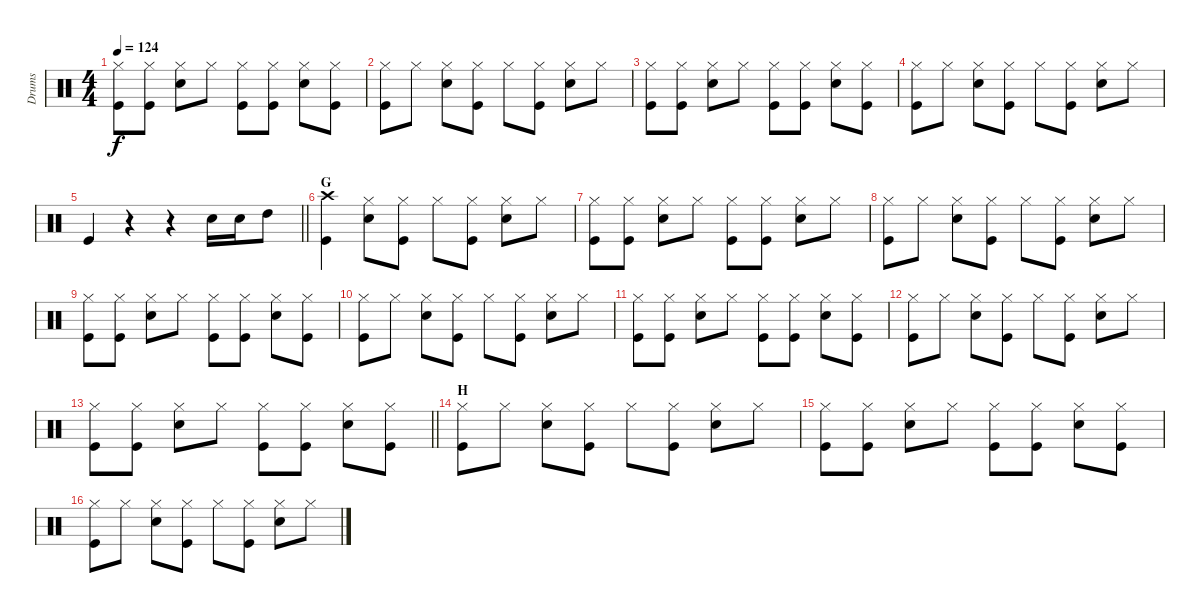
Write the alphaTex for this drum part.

\track ("Drums" "Drums") {instrument percussion}
\staff {score}
\articulation defaults
\ts (4 4)
\tempo 124
\clef neutral
\ks c
("Hi-Hat (closed)" "Kick (hit)").8{dy f} ("Hi-Hat (closed)" "Kick (hit)").8 ("Hi-Hat (closed)" "Electric Snare (hit)").8 "Hi-Hat (closed)".8 ("Hi-Hat (closed)" "Kick (hit)").8 ("Hi-Hat (closed)" "Kick (hit)").8 ("Hi-Hat (closed)" "Electric Snare (hit)").8 ("Hi-Hat (closed)" "Kick (hit)").8 |
("Hi-Hat (closed)" "Kick (hit)").8 "Hi-Hat (closed)".8 ("Hi-Hat (closed)" "Electric Snare (hit)").8 ("Hi-Hat (closed)" "Kick (hit)").8 "Hi-Hat (closed)".8 ("Hi-Hat (closed)" "Kick (hit)").8 ("Hi-Hat (closed)" "Electric Snare (hit)").8 "Hi-Hat (closed)".8 |
("Hi-Hat (closed)" "Kick (hit)").8 ("Hi-Hat (closed)" "Kick (hit)").8 ("Hi-Hat (closed)" "Electric Snare (hit)").8 "Hi-Hat (closed)".8 ("Hi-Hat (closed)" "Kick (hit)").8 ("Hi-Hat (closed)" "Kick (hit)").8 ("Hi-Hat (closed)" "Electric Snare (hit)").8 ("Hi-Hat (closed)" "Kick (hit)").8 |
("Hi-Hat (closed)" "Kick (hit)").8 "Hi-Hat (closed)".8 ("Hi-Hat (closed)" "Electric Snare (hit)").8 ("Hi-Hat (closed)" "Kick (hit)").8 "Hi-Hat (closed)".8 ("Hi-Hat (closed)" "Kick (hit)").8 ("Hi-Hat (closed)" "Electric Snare (hit)").8 "Hi-Hat (closed)".8 |
\barLineRight lightlight "Kick (hit)".4
r.4 r.4 "Electric Snare (hit)".16 "Electric Snare (hit)".16 "High Tom (hit)".8 |
\section ("" "G")
("Crash high (hit)" "Kick (hit)").4 ("Hi-Hat (closed)" "Electric Snare (hit)").8 ("Hi-Hat (closed)" "Kick (hit)").8 "Hi-Hat (closed)".8 ("Hi-Hat (closed)" "Kick (hit)").8 ("Hi-Hat (closed)" "Electric Snare (hit)").8 "Hi-Hat (closed)".8 |
("Hi-Hat (closed)" "Kick (hit)").8 ("Hi-Hat (closed)" "Kick (hit)").8 ("Hi-Hat (closed)" "Electric Snare (hit)").8 "Hi-Hat (closed)".8 ("Hi-Hat (closed)" "Kick (hit)").8 ("Hi-Hat (closed)" "Kick (hit)").8 ("Hi-Hat (closed)" "Electric Snare (hit)").8 "Hi-Hat (closed)".8 |
("Hi-Hat (closed)" "Kick (hit)").8 "Hi-Hat (closed)".8 ("Hi-Hat (closed)" "Electric Snare (hit)").8 ("Hi-Hat (closed)" "Kick (hit)").8 "Hi-Hat (closed)".8 ("Hi-Hat (closed)" "Kick (hit)").8 ("Hi-Hat (closed)" "Electric Snare (hit)").8 "Hi-Hat (closed)".8 |
("Hi-Hat (closed)" "Kick (hit)").8 ("Hi-Hat (closed)" "Kick (hit)").8 ("Hi-Hat (closed)" "Electric Snare (hit)").8 "Hi-Hat (closed)".8 ("Hi-Hat (closed)" "Kick (hit)").8 ("Hi-Hat (closed)" "Kick (hit)").8 ("Hi-Hat (closed)" "Electric Snare (hit)").8 ("Hi-Hat (closed)" "Kick (hit)").8 |
("Hi-Hat (closed)" "Kick (hit)").8 "Hi-Hat (closed)".8 ("Hi-Hat (closed)" "Electric Snare (hit)").8 ("Hi-Hat (closed)" "Kick (hit)").8 "Hi-Hat (closed)".8 ("Hi-Hat (closed)" "Kick (hit)").8 ("Hi-Hat (closed)" "Electric Snare (hit)").8 "Hi-Hat (closed)".8 |
("Hi-Hat (closed)" "Kick (hit)").8 ("Hi-Hat (closed)" "Kick (hit)").8 ("Hi-Hat (closed)" "Electric Snare (hit)").8 "Hi-Hat (closed)".8 ("Hi-Hat (closed)" "Kick (hit)").8 ("Hi-Hat (closed)" "Kick (hit)").8 ("Hi-Hat (closed)" "Electric Snare (hit)").8 ("Hi-Hat (closed)" "Kick (hit)").8 |
("Hi-Hat (closed)" "Kick (hit)").8 "Hi-Hat (closed)".8 ("Hi-Hat (closed)" "Electric Snare (hit)").8 ("Hi-Hat (closed)" "Kick (hit)").8 "Hi-Hat (closed)".8 ("Hi-Hat (closed)" "Kick (hit)").8 ("Hi-Hat (closed)" "Electric Snare (hit)").8 "Hi-Hat (closed)".8 |
\barLineRight lightlight
("Hi-Hat (closed)" "Kick (hit)").8 ("Hi-Hat (closed)" "Kick (hit)").8 ("Hi-Hat (closed)" "Electric Snare (hit)").8 "Hi-Hat (closed)".8 ("Hi-Hat (closed)" "Kick (hit)").8 ("Hi-Hat (closed)" "Kick (hit)").8 ("Hi-Hat (closed)" "Electric Snare (hit)").8 ("Hi-Hat (closed)" "Kick (hit)").8 |
\section ("" "H")
("Hi-Hat (closed)" "Kick (hit)").8 "Hi-Hat (closed)".8 ("Hi-Hat (closed)" "Electric Snare (hit)").8 ("Hi-Hat (closed)" "Kick (hit)").8 "Hi-Hat (closed)".8 ("Hi-Hat (closed)" "Kick (hit)").8 ("Hi-Hat (closed)" "Electric Snare (hit)").8 "Hi-Hat (closed)".8 |
("Hi-Hat (closed)" "Kick (hit)").8 ("Hi-Hat (closed)" "Kick (hit)").8 ("Hi-Hat (closed)" "Electric Snare (hit)").8 "Hi-Hat (closed)".8 ("Hi-Hat (closed)" "Kick (hit)").8 ("Hi-Hat (closed)" "Kick (hit)").8 ("Hi-Hat (closed)" "Electric Snare (hit)").8 ("Hi-Hat (closed)" "Kick (hit)").8 |
("Hi-Hat (closed)" "Kick (hit)").8 "Hi-Hat (closed)".8 ("Hi-Hat (closed)" "Electric Snare (hit)").8 ("Hi-Hat (closed)" "Kick (hit)").8 "Hi-Hat (closed)".8 ("Hi-Hat (closed)" "Kick (hit)").8 ("Hi-Hat (closed)" "Electric Snare (hit)").8 "Hi-Hat (closed)".8
